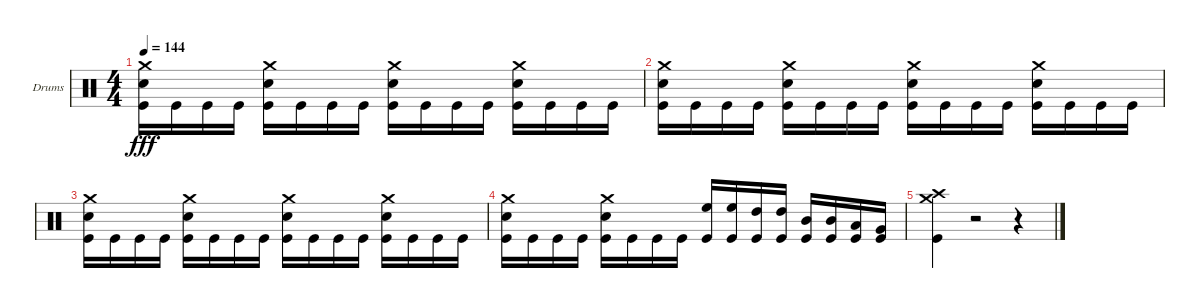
\bracketExtendMode groupsimilarinstruments
\firstSystemTrackNameOrientation horizontal
\otherSystemsTrackNameOrientation horizontal
\track ("Drumkit" "Drums") {instrument percussion}
\staff {score}
\articulation defaults
\ts (4 4)
\tempo 144
\clef neutral
\ks c
("Crash medium (hit)" "Snare (hit) 2" "Kick (hit)").16{dy fff} "Kick (hit)".16 "Kick (hit)".16 "Kick (hit)".16 ("Crash medium (hit)" "Snare (hit) 2" "Kick (hit)").16 "Kick (hit)".16 "Kick (hit)".16 "Kick (hit)".16 ("Crash medium (hit)" "Snare (hit) 2" "Kick (hit)").16 "Kick (hit)".16 "Kick (hit)".16 "Kick (hit)".16 ("Crash medium (hit)" "Snare (hit) 2" "Kick (hit)").16 "Kick (hit)".16 "Kick (hit)".16 "Kick (hit)".16 |
("Crash medium (hit)" "Snare (hit) 2" "Kick (hit)").16 "Kick (hit)".16 "Kick (hit)".16 "Kick (hit)".16 ("Crash medium (hit)" "Snare (hit) 2" "Kick (hit)").16 "Kick (hit)".16 "Kick (hit)".16 "Kick (hit)".16 ("Crash medium (hit)" "Snare (hit) 2" "Kick (hit)").16 "Kick (hit)".16 "Kick (hit)".16 "Kick (hit)".16 ("Crash medium (hit)" "Snare (hit) 2" "Kick (hit)").16 "Kick (hit)".16 "Kick (hit)".16 "Kick (hit)".16 |
("Crash medium (hit)" "Snare (hit) 2" "Kick (hit)").16 "Kick (hit)".16 "Kick (hit)".16 "Kick (hit)".16 ("Crash medium (hit)" "Snare (hit) 2" "Kick (hit)").16 "Kick (hit)".16 "Kick (hit)".16 "Kick (hit)".16 ("Crash medium (hit)" "Snare (hit) 2" "Kick (hit)").16 "Kick (hit)".16 "Kick (hit)".16 "Kick (hit)".16 ("Crash medium (hit)" "Snare (hit) 2" "Kick (hit)").16 "Kick (hit)".16 "Kick (hit)".16 "Kick (hit)".16 |
("Crash medium (hit)" "Snare (hit) 2" "Kick (hit)").16 "Kick (hit)".16 "Kick (hit)".16 "Kick (hit)".16 ("Crash medium (hit)" "Snare (hit) 2" "Kick (hit)").16 "Kick (hit)".16 "Kick (hit)".16 "Kick (hit)".16 ("Kick (hit)" "High Floor Tom (hit)").16 ("Kick (hit)" "High Floor Tom (hit)").16 ("Kick (hit)" "High Tom (hit)").16 ("Kick (hit)" "High Tom (hit)").16 ("Kick (hit)" "Mid Tom (hit)").16 ("Kick (hit)" "Mid Tom (hit)").16 ("Kick (hit)" "Low Tom (hit)").16 ("Kick (hit)" "Very Low Tom (hit)").16 |
("Crash medium (hit)" "Kick (hit)" "Crash high (hit)").4 r.2 r.4
